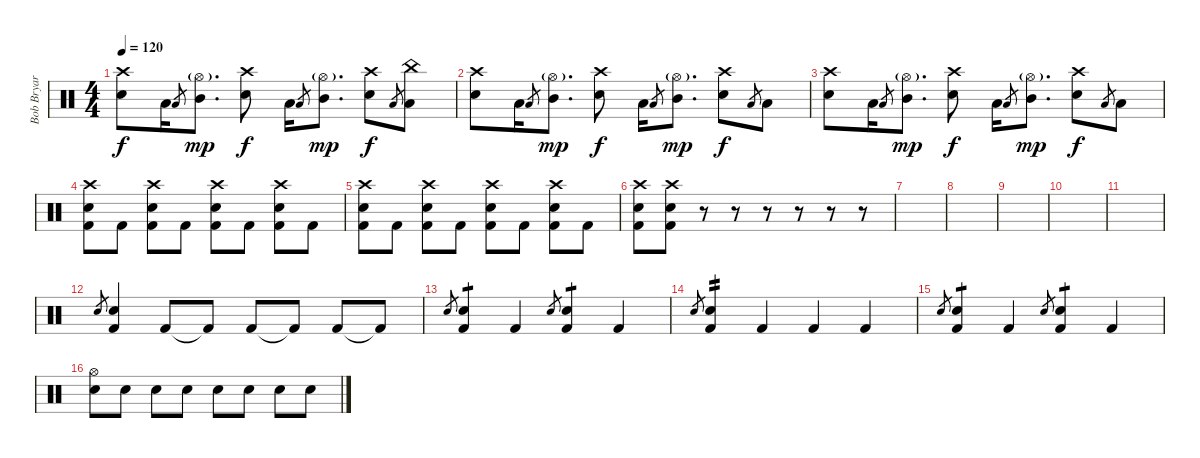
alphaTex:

\track ("Bob Bryar [Drums]" "Bob Bryar ") {instrument percussion}
\staff {score}
\articulation defaults
\ts (4 4)
\tempo 120
\clef neutral
\ks c
("Crash high (hit)" "Electric Snare (hit)").8{dy f} "Low Tom (hit)".16 "Low Floor Tom (hit)".8{gr} ("Hi-Hat (open)"{g} "Mid Tom (hit)").8{d dy mp} ("Crash high (hit)" "Electric Snare (hit)").8{dy f} "Low Tom (hit)".16 "Low Floor Tom (hit)".8{gr} ("Hi-Hat (open)"{g} "Mid Tom (hit)").8{d dy mp} ("Crash high (hit)" "Electric Snare (hit)").8{dy f} "Low Floor Tom (hit)".8{gr} ("China (hit)" "Low Tom (hit)").8 |
("Crash high (hit)" "Electric Snare (hit)").8 "Low Tom (hit)".16 "Low Floor Tom (hit)".8{gr} ("Hi-Hat (open)"{g} "Mid Tom (hit)").8{d dy mp} ("Crash high (hit)" "Electric Snare (hit)").8{dy f} "Low Tom (hit)".16 "Low Floor Tom (hit)".8{gr} ("Hi-Hat (open)"{g} "Mid Tom (hit)").8{d dy mp} ("Crash high (hit)" "Electric Snare (hit)").8{dy f} "Low Floor Tom (hit)".8{gr} "Low Tom (hit)".8 |
("Crash high (hit)" "Electric Snare (hit)").8 "Low Tom (hit)".16 "Low Floor Tom (hit)".8{gr} ("Hi-Hat (open)"{g} "Mid Tom (hit)").8{d dy mp} ("Crash high (hit)" "Electric Snare (hit)").8{dy f} "Low Tom (hit)".16 "Low Floor Tom (hit)".8{gr} ("Hi-Hat (open)"{g} "Mid Tom (hit)").8{d dy mp} ("Crash high (hit)" "Electric Snare (hit)").8{dy f} "Low Floor Tom (hit)".8{gr} "Low Tom (hit)".8 |
("Crash high (hit)" "Electric Snare (hit)" "Kick (hit) 2").8 "Kick (hit) 2".8 ("Crash high (hit)" "Electric Snare (hit)" "Kick (hit) 2").8 "Kick (hit) 2".8 ("Crash high (hit)" "Electric Snare (hit)" "Kick (hit) 2").8 "Kick (hit) 2".8 ("Crash high (hit)" "Electric Snare (hit)" "Kick (hit) 2").8 "Kick (hit) 2".8 |
("Crash high (hit)" "Electric Snare (hit)" "Kick (hit) 2").8 "Kick (hit) 2".8 ("Crash high (hit)" "Electric Snare (hit)" "Kick (hit) 2").8 "Kick (hit) 2".8 ("Crash high (hit)" "Electric Snare (hit)" "Kick (hit) 2").8 "Kick (hit) 2".8 ("Crash high (hit)" "Electric Snare (hit)" "Kick (hit) 2").8 "Kick (hit) 2".8 |
("Crash high (hit)" "Electric Snare (hit)" "Kick (hit) 2").8 ("Crash high (hit)" "Electric Snare (hit)" "Kick (hit) 2").8 r.8 r.8 r.8 r.8 r.8 r.8 |
|
|
|
|
|
"Electric Snare (hit)".8{gr} ("Electric Snare (hit)" "Kick (hit) 2").4 "Kick (hit) 2".8 "Kick (hit) 2"{t}.8 "Kick (hit) 2".8 "Kick (hit) 2"{t}.8 "Kick (hit) 2".8 "Kick (hit) 2"{t}.8 |
"Electric Snare (hit)".8{gr} ("Electric Snare (hit)" "Kick (hit) 2").4{tp 1} "Kick (hit) 2".4 "Electric Snare (hit)".8{gr} ("Electric Snare (hit)" "Kick (hit) 2").4{tp 1} "Kick (hit) 2".4 |
"Electric Snare (hit)".8{gr} ("Electric Snare (hit)" "Kick (hit) 2").4{tp 2} "Kick (hit) 2".4 "Kick (hit) 2".4 "Kick (hit) 2".4 |
"Electric Snare (hit)".8{gr} ("Electric Snare (hit)" "Kick (hit) 2").4{tp 1} "Kick (hit) 2".4 "Electric Snare (hit)".8{gr} ("Electric Snare (hit)" "Kick (hit) 2").4{tp 1} "Kick (hit) 2".4 |
("Hi-Hat (open)" "Electric Snare (hit)").8{volume 8} "Electric Snare (hit)".8{volume 13} "Electric Snare (hit)".8 "Electric Snare (hit)".8 "Electric Snare (hit)".8 "Electric Snare (hit)".8 "Electric Snare (hit)".8 "Electric Snare (hit)".8
